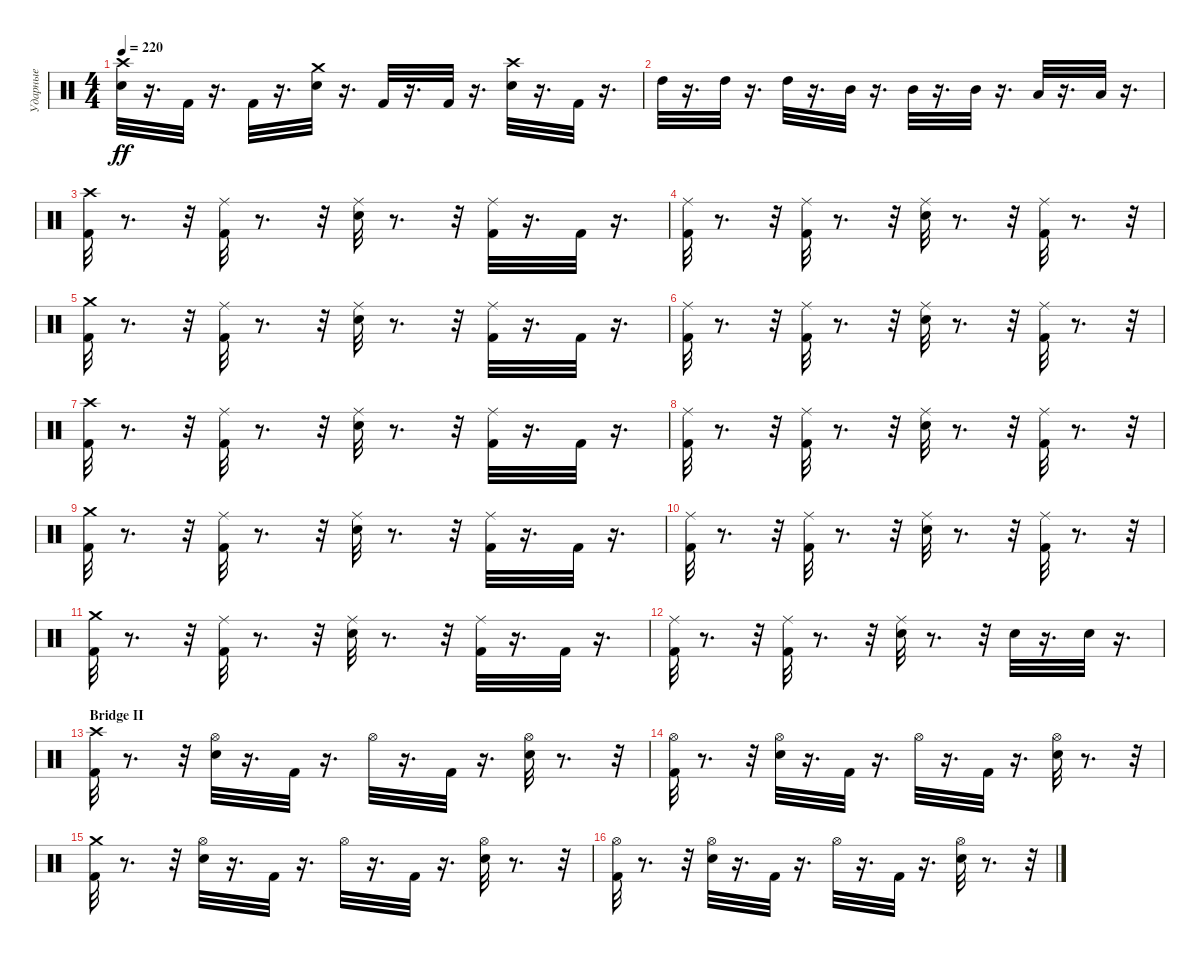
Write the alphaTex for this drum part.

\track ("Ударные" "Ударные") {instrument percussion}
\staff {score}
\articulation defaults
\ts (4 4)
\tempo 220
\clef neutral
\ks c
("Crash high (hit)" "Snare (hit) 2").32{dy ff} r.16{d} "Kick (hit) 2".32 r.16{d} "Kick (hit) 2".32 r.16{d} ("Crash medium (hit)" "Snare (hit) 2").32 r.16{d} "Kick (hit) 2".32 r.16{d} "Kick (hit) 2".32 r.16{d} ("Crash high (hit)" "Snare (hit) 2").32 r.16{d} "Kick (hit) 2".32 r.16{d} |
"High Tom (hit)".32 r.16{d} "High Tom (hit)".32 r.16{d} "High Tom (hit)".32 r.16{d} "Mid Tom (hit)".32 r.16{d} "Mid Tom (hit)".32 r.16{d} "Mid Tom (hit)".32 r.16{d} "Low Tom (hit)".32 r.16{d} "Low Tom (hit)".32 r.16{d} |
("Crash high (hit)" "Kick (hit) 2").32 r.8{d} r.32 ("Ride (middle)" "Kick (hit) 2").32 r.8{d} r.32 ("Ride (middle)" "Snare (hit) 2").32 r.8{d} r.32 ("Ride (middle)" "Kick (hit) 2").32 r.16{d} "Kick (hit) 2".32 r.16{d} |
("Ride (middle)" "Kick (hit) 2").32 r.8{d} r.32 ("Ride (middle)" "Kick (hit) 2").32 r.8{d} r.32 ("Ride (middle)" "Snare (hit) 2").32 r.8{d} r.32 ("Ride (middle)" "Kick (hit) 2").32 r.8{d} r.32 |
("Crash medium (hit)" "Kick (hit) 2").32 r.8{d} r.32 ("Ride (middle)" "Kick (hit) 2").32 r.8{d} r.32 ("Ride (middle)" "Snare (hit) 2").32 r.8{d} r.32 ("Ride (middle)" "Kick (hit) 2").32 r.16{d} "Kick (hit) 2".32 r.16{d} |
("Ride (middle)" "Kick (hit) 2").32 r.8{d} r.32 ("Ride (middle)" "Kick (hit) 2").32 r.8{d} r.32 ("Ride (middle)" "Snare (hit) 2").32 r.8{d} r.32 ("Ride (middle)" "Kick (hit) 2").32 r.8{d} r.32 |
("Crash high (hit)" "Kick (hit) 2").32 r.8{d} r.32 ("Ride (middle)" "Kick (hit) 2").32 r.8{d} r.32 ("Ride (middle)" "Snare (hit) 2").32 r.8{d} r.32 ("Ride (middle)" "Kick (hit) 2").32 r.16{d} "Kick (hit) 2".32 r.16{d} |
("Ride (middle)" "Kick (hit) 2").32 r.8{d} r.32 ("Ride (middle)" "Kick (hit) 2").32 r.8{d} r.32 ("Ride (middle)" "Snare (hit) 2").32 r.8{d} r.32 ("Ride (middle)" "Kick (hit) 2").32 r.8{d} r.32 |
("Crash medium (hit)" "Kick (hit) 2").32 r.8{d} r.32 ("Ride (middle)" "Kick (hit) 2").32 r.8{d} r.32 ("Ride (middle)" "Snare (hit) 2").32 r.8{d} r.32 ("Ride (middle)" "Kick (hit) 2").32 r.16{d} "Kick (hit) 2".32 r.16{d} |
("Ride (middle)" "Kick (hit) 2").32 r.8{d} r.32 ("Ride (middle)" "Kick (hit) 2").32 r.8{d} r.32 ("Ride (middle)" "Snare (hit) 2").32 r.8{d} r.32 ("Ride (middle)" "Kick (hit) 2").32 r.8{d} r.32 |
("Crash medium (hit)" "Kick (hit) 2").32 r.8{d} r.32 ("Ride (middle)" "Kick (hit) 2").32 r.8{d} r.32 ("Ride (middle)" "Snare (hit) 2").32 r.8{d} r.32 ("Ride (middle)" "Kick (hit) 2").32 r.16{d} "Kick (hit) 2".32 r.16{d} |
("Ride (middle)" "Kick (hit) 2").32 r.8{d} r.32 ("Ride (middle)" "Kick (hit) 2").32 r.8{d} r.32 ("Ride (middle)" "Snare (hit) 2").32 r.8{d} r.32 "Snare (hit) 2".32 r.16{d} "Snare (hit) 2".32 r.16{d} |
\section ("" "Bridge II")
("Crash high (hit)" "Kick (hit) 2").32 r.8{d} r.32 ("Hi-Hat (open)" "Snare (hit) 2").32 r.16{d} "Kick (hit) 2".32 r.16{d} "Hi-Hat (open)".32 r.16{d} "Kick (hit) 2".32 r.16{d} ("Hi-Hat (open)" "Snare (hit) 2").32 r.8{d} r.32 |
("Kick (hit) 2" "Hi-Hat (open)").32 r.8{d} r.32 ("Snare (hit) 2" "Hi-Hat (open)").32 r.16{d} "Kick (hit) 2".32 r.16{d} "Hi-Hat (open)".32 r.16{d} "Kick (hit) 2".32 r.16{d} ("Hi-Hat (open)" "Snare (hit) 2").32 r.8{d} r.32 |
("Crash medium (hit)" "Kick (hit) 2").32 r.8{d} r.32 ("Hi-Hat (open)" "Snare (hit) 2").32 r.16{d} "Kick (hit) 2".32 r.16{d} "Hi-Hat (open)".32 r.16{d} "Kick (hit) 2".32 r.16{d} ("Hi-Hat (open)" "Snare (hit) 2").32 r.8{d} r.32 |
("Kick (hit) 2" "Hi-Hat (open)").32 r.8{d} r.32 ("Snare (hit) 2" "Hi-Hat (open)").32 r.16{d} "Kick (hit) 2".32 r.16{d} "Hi-Hat (open)".32 r.16{d} "Kick (hit) 2".32 r.16{d} ("Hi-Hat (open)" "Snare (hit) 2").32 r.8{d} r.32
